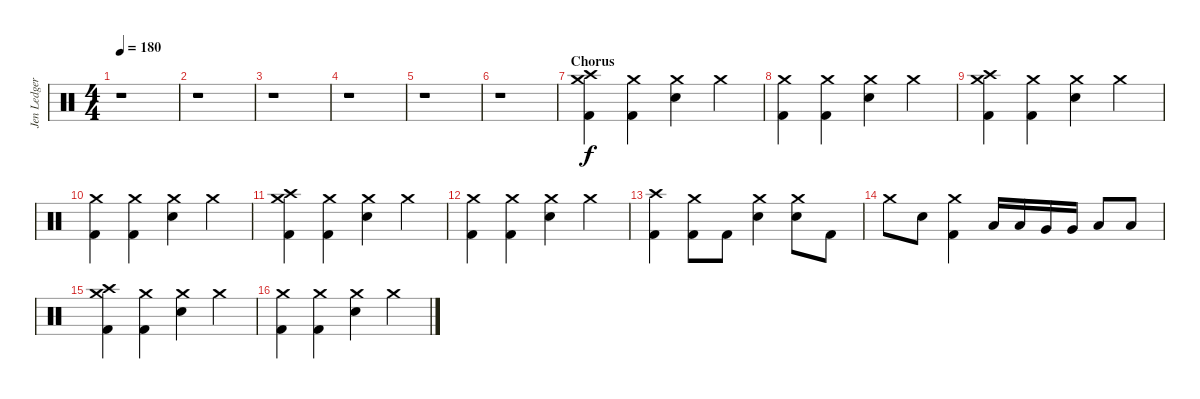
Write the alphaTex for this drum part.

\track ("Jen Ledger" "Jen Ledger") {instrument percussion}
\staff {score}
\articulation defaults
\ts (4 4)
\tempo 180
\clef neutral
\ks c
r.1{dy f} |
r.1 |
r.1 |
r.1 |
r.1 |
r.1 |
\section ("" "Chorus")
("Crash high (hit)" "Crash medium (hit)" "Kick (hit) 2").4 ("Crash medium (hit)" "Kick (hit) 2").4 ("Crash medium (hit)" "Electric Snare (hit)").4 "Crash medium (hit)".4 |
("Crash medium (hit)" "Kick (hit) 2").4 ("Crash medium (hit)" "Kick (hit) 2").4 ("Crash medium (hit)" "Electric Snare (hit)").4 "Crash medium (hit)".4 |
("Crash high (hit)" "Crash medium (hit)" "Kick (hit) 2").4 ("Crash medium (hit)" "Kick (hit) 2").4 ("Crash medium (hit)" "Electric Snare (hit)").4 "Crash medium (hit)".4 |
("Crash medium (hit)" "Kick (hit) 2").4 ("Crash medium (hit)" "Kick (hit) 2").4 ("Crash medium (hit)" "Electric Snare (hit)").4 "Crash medium (hit)".4 |
("Crash high (hit)" "Crash medium (hit)" "Kick (hit) 2").4 ("Crash medium (hit)" "Kick (hit) 2").4 ("Crash medium (hit)" "Electric Snare (hit)").4 "Crash medium (hit)".4 |
("Crash medium (hit)" "Kick (hit) 2").4 ("Crash medium (hit)" "Kick (hit) 2").4 ("Crash medium (hit)" "Electric Snare (hit)").4 "Crash medium (hit)".4 |
("Crash high (hit)" "Kick (hit) 2").4 ("Crash medium (hit)" "Kick (hit) 2").8 "Kick (hit) 2".8 ("Crash medium (hit)" "Electric Snare (hit)").4 ("Crash medium (hit)" "Electric Snare (hit)").8 "Kick (hit) 2".8 |
"Crash medium (hit)".8 "Electric Snare (hit)".8 ("Crash medium (hit)" "Kick (hit) 2").4 "Low Tom (hit)".16 "Low Tom (hit)".16 "Very Low Tom (hit)".16 "Very Low Tom (hit)".16 "Low Floor Tom (hit)".8 "Low Floor Tom (hit)".8 |
("Crash high (hit)" "Crash medium (hit)" "Kick (hit) 2").4 ("Crash medium (hit)" "Kick (hit) 2").4 ("Crash medium (hit)" "Electric Snare (hit)").4 "Crash medium (hit)".4 |
("Crash medium (hit)" "Kick (hit) 2").4 ("Crash medium (hit)" "Kick (hit) 2").4 ("Crash medium (hit)" "Electric Snare (hit)").4 "Crash medium (hit)".4
